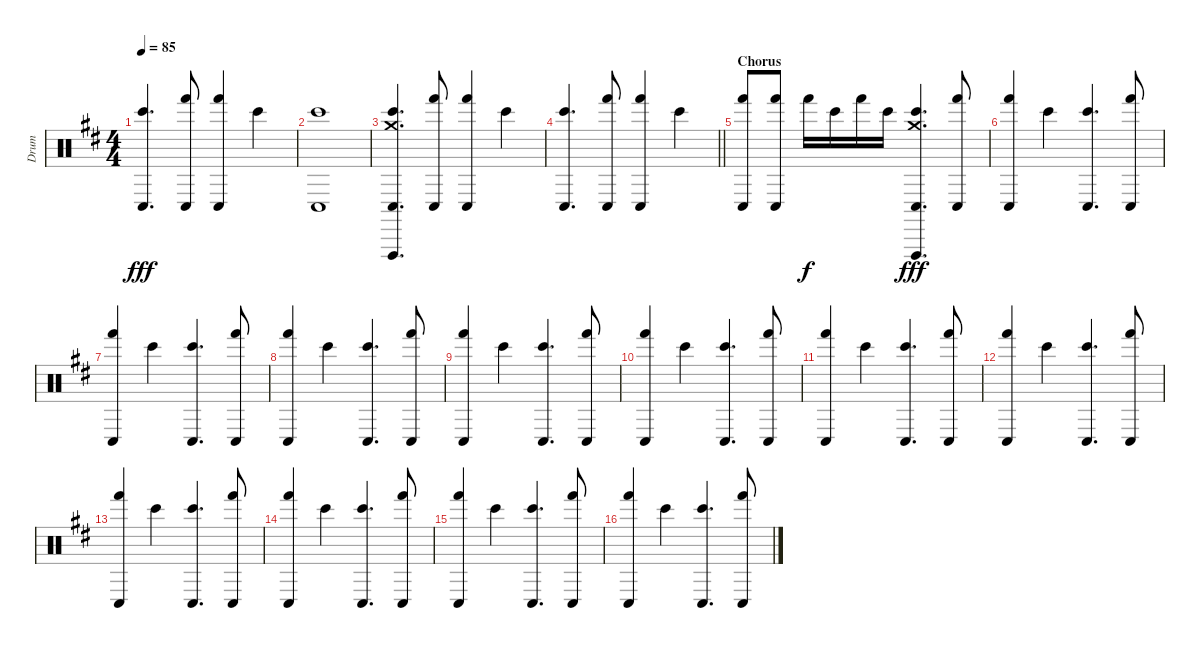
\track ("Drum " "Drum ") {instrument percussion}
\staff {score}
\articulation defaults
\ts (4 4)
\tempo 85
\clef neutral
\ks d
("Conga low (hit)" "Bongo High (hit)").4{d dy fff} ("Conga low (hit)" "Hand (hit)").8 ("Conga low (hit)" "Hand (hit)").4 "Bongo High (hit)".4 |
("Conga low (hit)" "Bongo High (hit)").1 |
("Conga low (hit)" "Bongo High (hit)" "Vibraslap (hit)" "Crash medium (hit)").4{d} ("Conga low (hit)" "Hand (hit)").8 ("Conga low (hit)" "Hand (hit)").4 "Bongo High (hit)".4 |
\barLineRight lightlight
("Conga low (hit)" "Bongo High (hit)").4{d} ("Conga low (hit)" "Hand (hit)").8 ("Conga low (hit)" "Hand (hit)").4 "Bongo High (hit)".4 |
\section ("" "Chorus")
("Conga low (hit)" "Hand (hit)").8 ("Conga low (hit)" "Hand (hit)").8 "Hand (hit)".16{dy f} "Bongo High (hit)".16 "Hand (hit)".16 "Bongo High (hit)".16 ("Conga low (hit)" "Bongo High (hit)" "Vibraslap (hit)" "Crash medium (hit)").4{d dy fff} ("Conga low (hit)" "Hand (hit)").8 |
("Conga low (hit)" "Hand (hit)").4 "Bongo High (hit)".4 ("Conga low (hit)" "Bongo High (hit)").4{d} ("Conga low (hit)" "Hand (hit)").8 |
("Conga low (hit)" "Hand (hit)").4 "Bongo High (hit)".4 ("Conga low (hit)" "Bongo High (hit)").4{d} ("Conga low (hit)" "Hand (hit)").8 |
("Conga low (hit)" "Hand (hit)").4 "Bongo High (hit)".4 ("Conga low (hit)" "Bongo High (hit)").4{d} ("Conga low (hit)" "Hand (hit)").8 |
("Conga low (hit)" "Hand (hit)").4 "Bongo High (hit)".4 ("Conga low (hit)" "Bongo High (hit)").4{d} ("Conga low (hit)" "Hand (hit)").8 |
("Conga low (hit)" "Hand (hit)").4 "Bongo High (hit)".4 ("Conga low (hit)" "Bongo High (hit)").4{d} ("Conga low (hit)" "Hand (hit)").8 |
("Conga low (hit)" "Hand (hit)").4 "Bongo High (hit)".4 ("Conga low (hit)" "Bongo High (hit)").4{d} ("Conga low (hit)" "Hand (hit)").8 |
("Conga low (hit)" "Hand (hit)").4 "Bongo High (hit)".4 ("Conga low (hit)" "Bongo High (hit)").4{d} ("Conga low (hit)" "Hand (hit)").8 |
("Conga low (hit)" "Hand (hit)").4 "Bongo High (hit)".4 ("Conga low (hit)" "Bongo High (hit)").4{d} ("Conga low (hit)" "Hand (hit)").8 |
("Conga low (hit)" "Hand (hit)").4 "Bongo High (hit)".4 ("Conga low (hit)" "Bongo High (hit)").4{d} ("Conga low (hit)" "Hand (hit)").8 |
("Conga low (hit)" "Hand (hit)").4 "Bongo High (hit)".4 ("Conga low (hit)" "Bongo High (hit)").4{d} ("Conga low (hit)" "Hand (hit)").8 |
("Conga low (hit)" "Hand (hit)").4 "Bongo High (hit)".4 ("Conga low (hit)" "Bongo High (hit)").4{d} ("Conga low (hit)" "Hand (hit)").8
